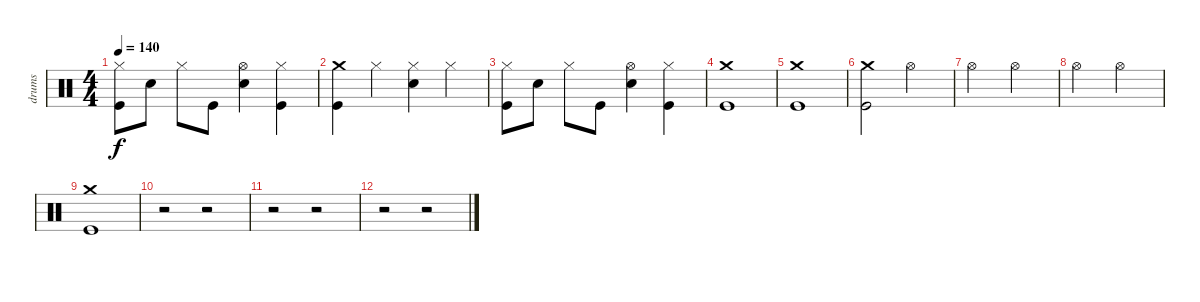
\track ("drums" "drums") {instrument percussion}
\staff {score}
\articulation defaults
\ts (4 4)
\tempo 140
\clef neutral
\ks c
("Kick (hit)" "Hi-Hat (closed)").8{dy f} "Snare (hit) 2".8 "Hi-Hat (closed)".8 "Kick (hit)".8 ("Snare (hit) 2" "Hi-Hat (open)").4 ("Kick (hit)" "Hi-Hat (closed)").4 |
("Kick (hit)" "Crash medium (hit)").4 "Hi-Hat (closed)".4 ("Snare (hit) 2" "Hi-Hat (closed)").4 "Hi-Hat (closed)".4 |
("Kick (hit)" "Hi-Hat (closed)").8 "Snare (hit) 2".8 "Hi-Hat (closed)".8 "Kick (hit)".8 ("Snare (hit) 2" "Hi-Hat (open)").4 ("Kick (hit)" "Hi-Hat (closed)").4 |
("Kick (hit)" "Crash medium (hit)").1 |
("Crash medium (hit)" "Kick (hit)").1 |
("Crash medium (hit)" "Kick (hit)").2 "Hi-Hat (open)".2 |
"Hi-Hat (open)".2 "Hi-Hat (open)".2 |
"Hi-Hat (open)".2 "Hi-Hat (open)".2 |
("Kick (hit)" "Crash medium (hit)").1 |
r.2 r.2 |
r.2 r.2 |
r.2 r.2
